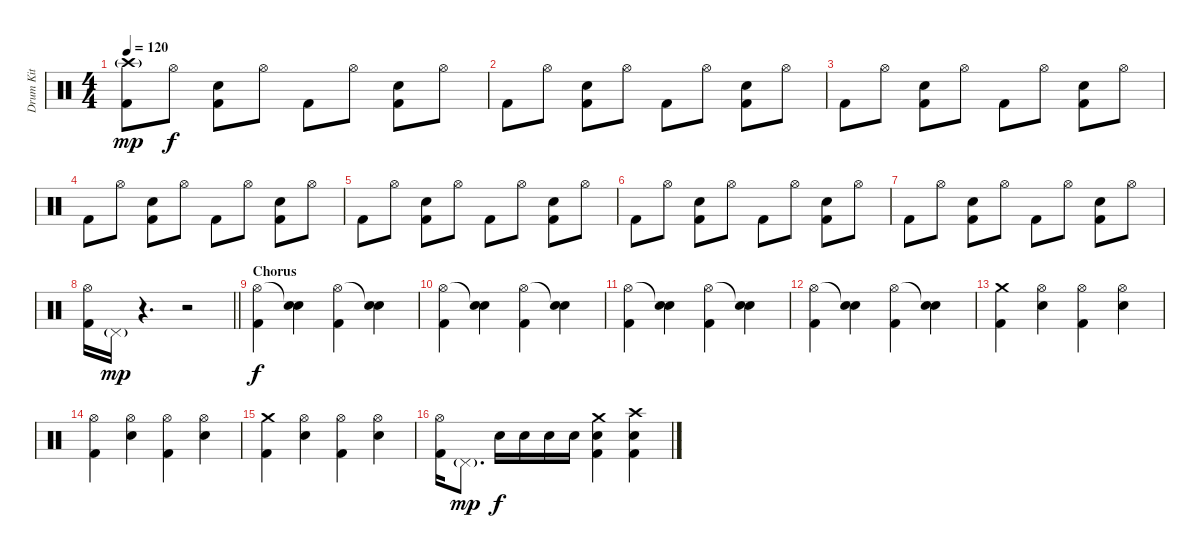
\track ("Drum Kit" "Drum Kit") {instrument percussion}
\staff {score}
\articulation defaults
\ts (4 4)
\tempo 120
\clef neutral
\ks c
("Crash high (hit)"{g} "Kick (hit) 2").8{dy mp} "Hi-Hat (open)".8{dy f} ("Electric Snare (hit)" "Kick (hit) 2").8 "Hi-Hat (open)".8 "Kick (hit) 2".8 "Hi-Hat (open)".8 ("Electric Snare (hit)" "Kick (hit) 2").8 "Hi-Hat (open)".8 |
"Kick (hit) 2".8 "Hi-Hat (open)".8 ("Electric Snare (hit)" "Kick (hit) 2").8 "Hi-Hat (open)".8 "Kick (hit) 2".8 "Hi-Hat (open)".8 ("Electric Snare (hit)" "Kick (hit) 2").8 "Hi-Hat (open)".8 |
"Kick (hit) 2".8 "Hi-Hat (open)".8 ("Electric Snare (hit)" "Kick (hit) 2").8 "Hi-Hat (open)".8 "Kick (hit) 2".8 "Hi-Hat (open)".8 ("Electric Snare (hit)" "Kick (hit) 2").8 "Hi-Hat (open)".8 |
"Kick (hit) 2".8 "Hi-Hat (open)".8 ("Electric Snare (hit)" "Kick (hit) 2").8 "Hi-Hat (open)".8 "Kick (hit) 2".8 "Hi-Hat (open)".8 ("Electric Snare (hit)" "Kick (hit) 2").8 "Hi-Hat (open)".8 |
"Kick (hit) 2".8 "Hi-Hat (open)".8 ("Electric Snare (hit)" "Kick (hit) 2").8 "Hi-Hat (open)".8 "Kick (hit) 2".8 "Hi-Hat (open)".8 ("Electric Snare (hit)" "Kick (hit) 2").8 "Hi-Hat (open)".8 |
"Kick (hit) 2".8 "Hi-Hat (open)".8 ("Electric Snare (hit)" "Kick (hit) 2").8 "Hi-Hat (open)".8 "Kick (hit) 2".8 "Hi-Hat (open)".8 ("Electric Snare (hit)" "Kick (hit) 2").8 "Hi-Hat (open)".8 |
"Kick (hit) 2".8 "Hi-Hat (open)".8 ("Electric Snare (hit)" "Kick (hit) 2").8 "Hi-Hat (open)".8 "Kick (hit) 2".8 "Hi-Hat (open)".8 ("Electric Snare (hit)" "Kick (hit) 2").8 "Hi-Hat (open)".8 |
\barLineRight lightlight
("Hi-Hat (open)" "Kick (hit) 2").16 "Pedal Hi-Hat (hit)"{g}.16{dy mp} r.4{d} r.2 |
\section ("" "Chorus")
("Hi-Hat (open)" "Kick (hit) 2").4{dy f} ("Snare (hit)"{t} "Electric Snare (hit)").4 ("Hi-Hat (open)" "Kick (hit) 2").4 ("Snare (hit)"{t} "Electric Snare (hit)").4 |
("Hi-Hat (open)" "Kick (hit) 2").4 ("Snare (hit)"{t} "Electric Snare (hit)").4 ("Hi-Hat (open)" "Kick (hit) 2").4 ("Snare (hit)"{t} "Electric Snare (hit)").4 |
("Hi-Hat (open)" "Kick (hit) 2").4 ("Snare (hit)"{t} "Electric Snare (hit)").4 ("Hi-Hat (open)" "Kick (hit) 2").4 ("Snare (hit)"{t} "Electric Snare (hit)").4 |
("Hi-Hat (open)" "Kick (hit) 2").4 ("Snare (hit)"{t} "Electric Snare (hit)").4 ("Hi-Hat (open)" "Kick (hit) 2").4 ("Snare (hit)"{t} "Electric Snare (hit)").4 |
("Crash medium (hit)" "Kick (hit) 2").4 ("Hi-Hat (open)" "Electric Snare (hit)").4 ("Hi-Hat (open)" "Kick (hit) 2").4 ("Hi-Hat (open)" "Electric Snare (hit)").4 |
("Hi-Hat (open)" "Kick (hit) 2").4 ("Hi-Hat (open)" "Electric Snare (hit)").4 ("Hi-Hat (open)" "Kick (hit) 2").4 ("Hi-Hat (open)" "Electric Snare (hit)").4 |
("Crash medium (hit)" "Kick (hit) 2").4 ("Hi-Hat (open)" "Electric Snare (hit)").4 ("Hi-Hat (open)" "Kick (hit) 2").4 ("Hi-Hat (open)" "Electric Snare (hit)").4 |
("Hi-Hat (open)" "Kick (hit) 2").16 "Pedal Hi-Hat (hit)"{g}.8{d dy mp} "Electric Snare (hit)".16{dy f} "Electric Snare (hit)".16 "Electric Snare (hit)".16 "Electric Snare (hit)".16 ("Crash medium (hit)" "Electric Snare (hit)" "Kick (hit) 2").4 ("Crash high (hit)" "Electric Snare (hit)" "Kick (hit) 2").4
